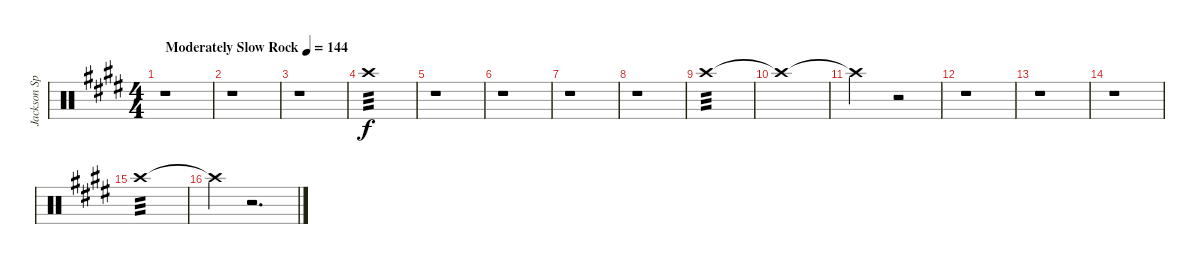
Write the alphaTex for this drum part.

\track ("Jackson Spiers Drums" "Jackson Sp") {instrument percussion}
\staff {score}
\articulation defaults
\ts (4 4)
\tempo (144 "Moderately Slow Rock")
\clef neutral
\ks c#minor
r.1{dy f} |
r.1 |
r.1 |
"Crash high (hit)".1{tp 3 volume 7} |
r.1 |
r.1 |
r.1 |
r.1 |
"Crash high (hit)".1{tp 3} |
"Crash high (hit)"{t}.1 |
"Crash high (hit)"{t}.2 r.2 |
r.1 |
r.1 |
r.1 |
"Crash high (hit)".1{tp 3} |
"Crash high (hit)"{t}.4 r.2{d}
